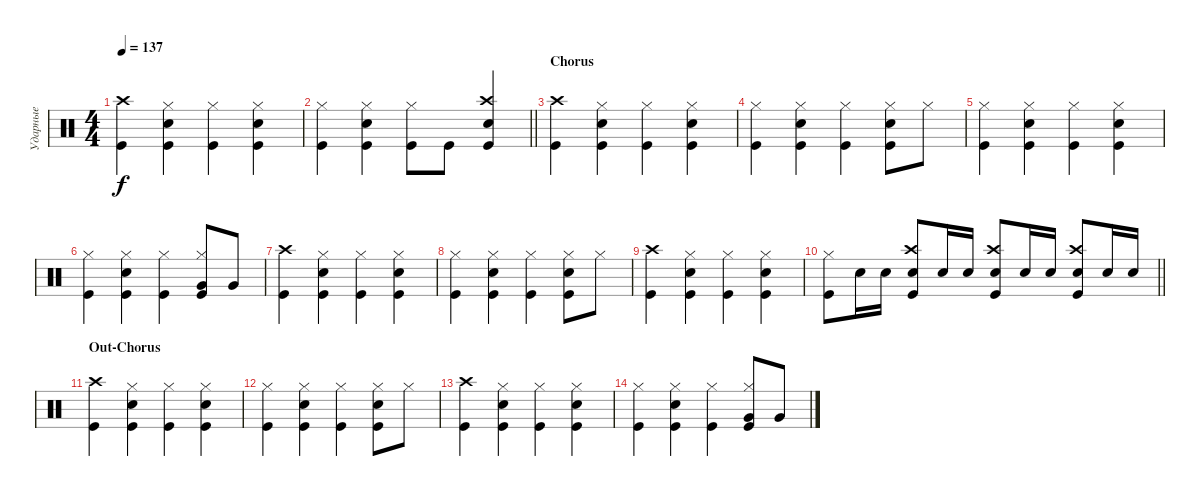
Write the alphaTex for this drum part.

\track ("Ударные" "Ударные") {instrument percussion}
\staff {score}
\articulation defaults
\ts (4 4)
\tempo 137
\clef neutral
\ks aminor
("Kick (hit)" "Crash high (hit)").4{dy f} ("Snare (hit) 2" "Hi-Hat (closed)" "Kick (hit)").4 ("Kick (hit)" "Hi-Hat (closed)").4 ("Snare (hit) 2" "Hi-Hat (closed)" "Kick (hit)").4 |
\barLineRight lightlight
("Hi-Hat (closed)" "Kick (hit)").4 ("Snare (hit) 2" "Hi-Hat (closed)" "Kick (hit)").4 ("Kick (hit)" "Hi-Hat (closed)").8 "Kick (hit)".8 ("Snare (hit) 2" "Crash high (hit)" "Kick (hit)").4 |
\section ("" "Chorus")
("Kick (hit)" "Crash high (hit)").4 ("Snare (hit) 2" "Hi-Hat (closed)" "Kick (hit)").4 ("Kick (hit)" "Hi-Hat (closed)").4 ("Snare (hit) 2" "Hi-Hat (closed)" "Kick (hit)").4 |
("Hi-Hat (closed)" "Kick (hit)").4 ("Snare (hit) 2" "Hi-Hat (closed)" "Kick (hit)").4 ("Kick (hit)" "Hi-Hat (closed)").4 ("Snare (hit) 2" "Hi-Hat (closed)" "Kick (hit)").8 "Hi-Hat (closed)".8 |
("Kick (hit)" "Hi-Hat (closed)").4 ("Snare (hit) 2" "Hi-Hat (closed)" "Kick (hit)").4 ("Kick (hit)" "Hi-Hat (closed)").4 ("Snare (hit) 2" "Hi-Hat (closed)" "Kick (hit)").4 |
("Kick (hit)" "Hi-Hat (closed)").4 ("Snare (hit) 2" "Hi-Hat (closed)" "Kick (hit)").4 ("Kick (hit)" "Hi-Hat (closed)").4 ("Kick (hit)" "Very Low Tom (hit)" "Hi-Hat (closed)").8 "Very Low Tom (hit)".8 |
("Kick (hit)" "Crash high (hit)").4 ("Snare (hit) 2" "Hi-Hat (closed)" "Kick (hit)").4 ("Kick (hit)" "Hi-Hat (closed)").4 ("Snare (hit) 2" "Hi-Hat (closed)" "Kick (hit)").4 |
("Hi-Hat (closed)" "Kick (hit)").4 ("Snare (hit) 2" "Hi-Hat (closed)" "Kick (hit)").4 ("Kick (hit)" "Hi-Hat (closed)").4 ("Snare (hit) 2" "Hi-Hat (closed)" "Kick (hit)").8 "Hi-Hat (closed)".8 |
("Kick (hit)" "Crash high (hit)").4 ("Snare (hit) 2" "Hi-Hat (closed)" "Kick (hit)").4 ("Kick (hit)" "Hi-Hat (closed)").4 ("Snare (hit) 2" "Hi-Hat (closed)" "Kick (hit)").4 |
\barLineRight lightlight
("Hi-Hat (closed)" "Kick (hit)").8 "Snare (hit) 2".16 "Snare (hit) 2".16 ("Snare (hit) 2" "Crash high (hit)" "Kick (hit)").8 "Snare (hit) 2".16 "Snare (hit) 2".16 ("Snare (hit) 2" "Crash high (hit)" "Kick (hit)").8 "Snare (hit) 2".16 "Snare (hit) 2".16 ("Snare (hit) 2" "Crash high (hit)" "Kick (hit)").8 "Snare (hit) 2".16 "Snare (hit) 2".16 |
\section ("" "Out-Chorus")
("Kick (hit)" "Crash high (hit)").4{volume 0} ("Snare (hit) 2" "Hi-Hat (closed)" "Kick (hit)").4 ("Kick (hit)" "Hi-Hat (closed)").4 ("Snare (hit) 2" "Hi-Hat (closed)" "Kick (hit)").4 |
("Hi-Hat (closed)" "Kick (hit)").4 ("Snare (hit) 2" "Hi-Hat (closed)" "Kick (hit)").4 ("Kick (hit)" "Hi-Hat (closed)").4 ("Snare (hit) 2" "Hi-Hat (closed)" "Kick (hit)").8 "Hi-Hat (closed)".8 |
("Kick (hit)" "Crash high (hit)").4 ("Snare (hit) 2" "Hi-Hat (closed)" "Kick (hit)").4 ("Kick (hit)" "Hi-Hat (closed)").4 ("Snare (hit) 2" "Hi-Hat (closed)" "Kick (hit)").4 |
("Kick (hit)" "Hi-Hat (closed)").4 ("Snare (hit) 2" "Hi-Hat (closed)" "Kick (hit)").4 ("Kick (hit)" "Hi-Hat (closed)").4 ("Kick (hit)" "Very Low Tom (hit)" "Hi-Hat (closed)").8 "Very Low Tom (hit)".8
